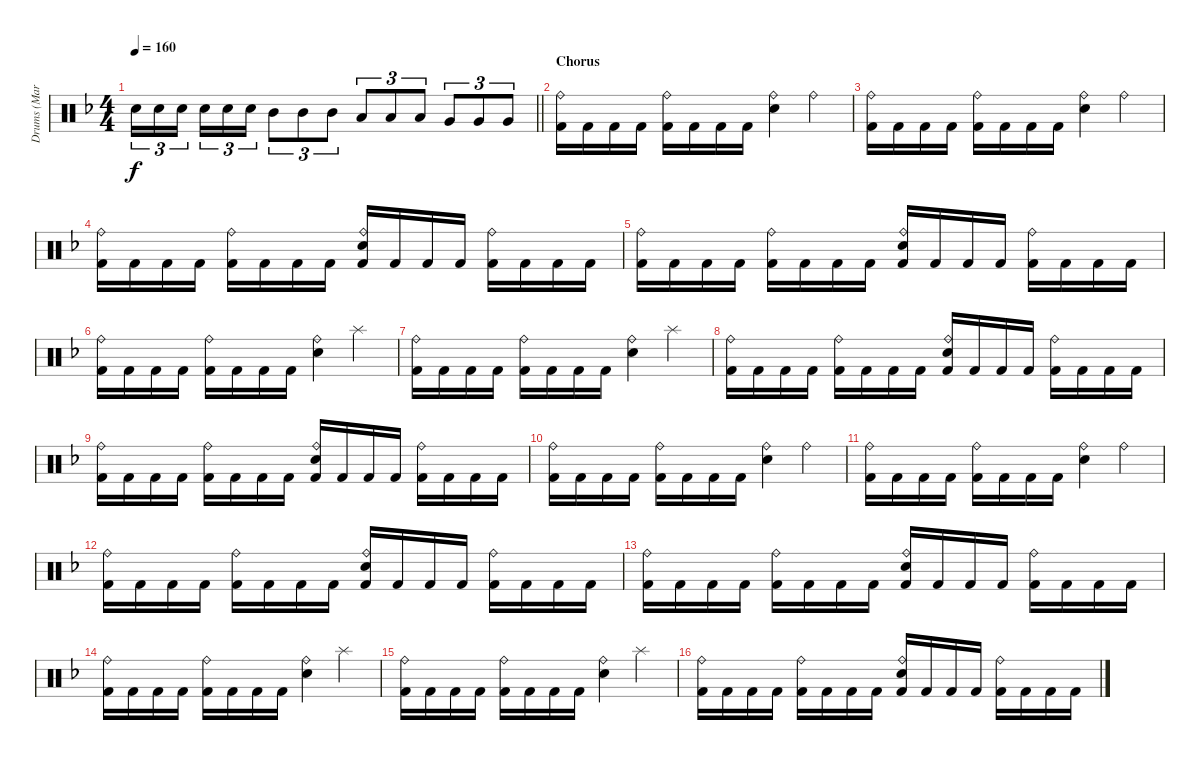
\track ("Drums (Mark)" "Drums (Mar") {instrument percussion}
\staff {score}
\articulation defaults
\ts (4 4)
\tempo 160
\clef neutral
\barLineRight lightlight
\ks dminor "Snare (hit) 2".16{tu (3 2) dy f} "Snare (hit) 2".16{tu (3 2)} "Snare (hit) 2".16{tu (3 2) beam splitsecondary} "Snare (hit) 2".16{tu (3 2)} "Snare (hit) 2".16{tu (3 2)} "Snare (hit) 2".16{tu (3 2)} "Mid Tom (hit)".8{tu (3 2)} "Mid Tom (hit)".8{tu (3 2)} "Mid Tom (hit)".8{tu (3 2)} "Low Tom (hit)".8{tu (3 2)} "Low Tom (hit)".8{tu (3 2)} "Low Tom (hit)".8{tu (3 2)} "Very Low Tom (hit)".8{tu (3 2)} "Very Low Tom (hit)".8{tu (3 2)} "Very Low Tom (hit)".8{tu (3 2)}
|
\section ("" "Chorus")
("Ride (bell)" "Kick (hit) 2").16 "Kick (hit) 2".16 "Kick (hit) 2".16 "Kick (hit) 2".16 ("Ride (bell)" "Kick (hit) 2").16 "Kick (hit) 2".16 "Kick (hit) 2".16 "Kick (hit) 2".16 ("Ride (bell)" "Snare (hit) 2").4 "Ride (bell)".4 |
("Ride (bell)" "Kick (hit) 2").16 "Kick (hit) 2".16 "Kick (hit) 2".16 "Kick (hit) 2".16 ("Ride (bell)" "Kick (hit) 2").16 "Kick (hit) 2".16 "Kick (hit) 2".16 "Kick (hit) 2".16 ("Ride (bell)" "Snare (hit) 2").4 "Ride (bell)".4 |
("Ride (bell)" "Kick (hit) 2").16 "Kick (hit) 2".16 "Kick (hit) 2".16 "Kick (hit) 2".16 ("Ride (bell)" "Kick (hit) 2").16 "Kick (hit) 2".16 "Kick (hit) 2".16 "Kick (hit) 2".16 ("Ride (bell)" "Snare (hit) 2" "Kick (hit) 2").16 "Kick (hit) 2".16 "Kick (hit) 2".16 "Kick (hit) 2".16 ("Ride (bell)" "Kick (hit) 2").16 "Kick (hit) 2".16 "Kick (hit) 2".16 "Kick (hit) 2".16 |
("Ride (bell)" "Kick (hit) 2").16 "Kick (hit) 2".16 "Kick (hit) 2".16 "Kick (hit) 2".16 ("Ride (bell)" "Kick (hit) 2").16 "Kick (hit) 2".16 "Kick (hit) 2".16 "Kick (hit) 2".16 ("Ride (bell)" "Snare (hit) 2" "Kick (hit) 2").16 "Kick (hit) 2".16 "Kick (hit) 2".16 "Kick (hit) 2".16 ("Ride (bell)" "Kick (hit) 2").16 "Kick (hit) 2".16 "Kick (hit) 2".16 "Kick (hit) 2".16 |
("Ride (bell)" "Kick (hit) 2").16 "Kick (hit) 2".16 "Kick (hit) 2".16 "Kick (hit) 2".16 ("Ride (bell)" "Kick (hit) 2").16 "Kick (hit) 2".16 "Kick (hit) 2".16 "Kick (hit) 2".16 ("Ride (bell)" "Snare (hit) 2").4 "Splash (hit)".4 |
("Ride (bell)" "Kick (hit) 2").16 "Kick (hit) 2".16 "Kick (hit) 2".16 "Kick (hit) 2".16 ("Ride (bell)" "Kick (hit) 2").16 "Kick (hit) 2".16 "Kick (hit) 2".16 "Kick (hit) 2".16 ("Ride (bell)" "Snare (hit) 2").4 "Splash (hit)".4 |
("Ride (bell)" "Kick (hit) 2").16 "Kick (hit) 2".16 "Kick (hit) 2".16 "Kick (hit) 2".16 ("Ride (bell)" "Kick (hit) 2").16 "Kick (hit) 2".16 "Kick (hit) 2".16 "Kick (hit) 2".16 ("Ride (bell)" "Snare (hit) 2" "Kick (hit) 2").16 "Kick (hit) 2".16 "Kick (hit) 2".16 "Kick (hit) 2".16 ("Ride (bell)" "Kick (hit) 2").16 "Kick (hit) 2".16 "Kick (hit) 2".16 "Kick (hit) 2".16 |
("Ride (bell)" "Kick (hit) 2").16 "Kick (hit) 2".16 "Kick (hit) 2".16 "Kick (hit) 2".16 ("Ride (bell)" "Kick (hit) 2").16 "Kick (hit) 2".16 "Kick (hit) 2".16 "Kick (hit) 2".16 ("Ride (bell)" "Snare (hit) 2" "Kick (hit) 2").16 "Kick (hit) 2".16 "Kick (hit) 2".16 "Kick (hit) 2".16 ("Ride (bell)" "Kick (hit) 2").16 "Kick (hit) 2".16 "Kick (hit) 2".16 "Kick (hit) 2".16 |
("Ride (bell)" "Kick (hit) 2").16 "Kick (hit) 2".16 "Kick (hit) 2".16 "Kick (hit) 2".16 ("Ride (bell)" "Kick (hit) 2").16 "Kick (hit) 2".16 "Kick (hit) 2".16 "Kick (hit) 2".16 ("Ride (bell)" "Snare (hit) 2").4 "Ride (bell)".4 |
("Ride (bell)" "Kick (hit) 2").16 "Kick (hit) 2".16 "Kick (hit) 2".16 "Kick (hit) 2".16 ("Ride (bell)" "Kick (hit) 2").16 "Kick (hit) 2".16 "Kick (hit) 2".16 "Kick (hit) 2".16 ("Ride (bell)" "Snare (hit) 2").4 "Ride (bell)".4 |
("Ride (bell)" "Kick (hit) 2").16 "Kick (hit) 2".16 "Kick (hit) 2".16 "Kick (hit) 2".16 ("Ride (bell)" "Kick (hit) 2").16 "Kick (hit) 2".16 "Kick (hit) 2".16 "Kick (hit) 2".16 ("Ride (bell)" "Snare (hit) 2" "Kick (hit) 2").16 "Kick (hit) 2".16 "Kick (hit) 2".16 "Kick (hit) 2".16 ("Ride (bell)" "Kick (hit) 2").16 "Kick (hit) 2".16 "Kick (hit) 2".16 "Kick (hit) 2".16 |
("Ride (bell)" "Kick (hit) 2").16 "Kick (hit) 2".16 "Kick (hit) 2".16 "Kick (hit) 2".16 ("Ride (bell)" "Kick (hit) 2").16 "Kick (hit) 2".16 "Kick (hit) 2".16 "Kick (hit) 2".16 ("Ride (bell)" "Snare (hit) 2" "Kick (hit) 2").16 "Kick (hit) 2".16 "Kick (hit) 2".16 "Kick (hit) 2".16 ("Ride (bell)" "Kick (hit) 2").16 "Kick (hit) 2".16 "Kick (hit) 2".16 "Kick (hit) 2".16 |
("Ride (bell)" "Kick (hit) 2").16 "Kick (hit) 2".16 "Kick (hit) 2".16 "Kick (hit) 2".16 ("Ride (bell)" "Kick (hit) 2").16 "Kick (hit) 2".16 "Kick (hit) 2".16 "Kick (hit) 2".16 ("Ride (bell)" "Snare (hit) 2").4 "Splash (hit)".4 |
("Ride (bell)" "Kick (hit) 2").16 "Kick (hit) 2".16 "Kick (hit) 2".16 "Kick (hit) 2".16 ("Ride (bell)" "Kick (hit) 2").16 "Kick (hit) 2".16 "Kick (hit) 2".16 "Kick (hit) 2".16 ("Ride (bell)" "Snare (hit) 2").4 "Splash (hit)".4 |
("Ride (bell)" "Kick (hit) 2").16 "Kick (hit) 2".16 "Kick (hit) 2".16 "Kick (hit) 2".16 ("Ride (bell)" "Kick (hit) 2").16 "Kick (hit) 2".16 "Kick (hit) 2".16 "Kick (hit) 2".16 ("Ride (bell)" "Snare (hit) 2" "Kick (hit) 2").16 "Kick (hit) 2".16 "Kick (hit) 2".16 "Kick (hit) 2".16 ("Ride (bell)" "Kick (hit) 2").16 "Kick (hit) 2".16 "Kick (hit) 2".16 "Kick (hit) 2".16
